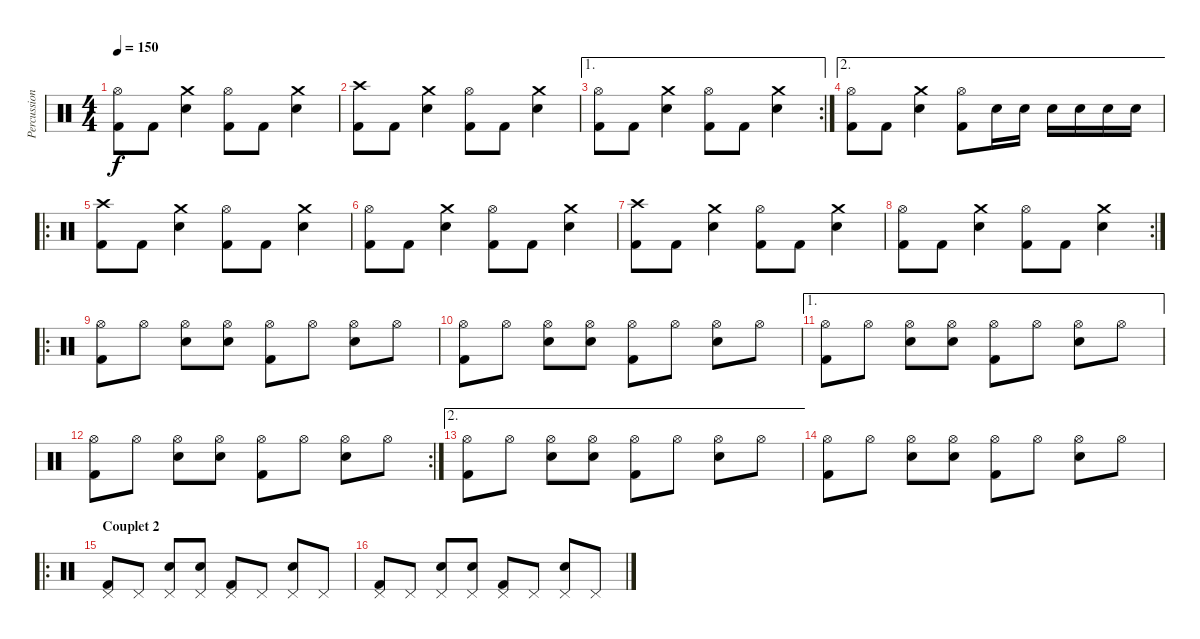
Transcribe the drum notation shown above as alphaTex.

\track ("Percussions" "Percussion") {instrument percussion}
\staff {score}
\articulation defaults
\ts (4 4)
\tempo 150
\clef neutral
\ks c
("Hi-Hat (open)" "Kick (hit) 2").8{dy f} "Kick (hit) 2".8 ("Crash medium (hit)" "Electric Snare (hit)").4 ("Hi-Hat (open)" "Kick (hit) 2").8 "Kick (hit) 2".8 ("Crash medium (hit)" "Electric Snare (hit)").4 |
("Crash high (hit)" "Kick (hit) 2").8 "Kick (hit) 2".8 ("Crash medium (hit)" "Electric Snare (hit)").4 ("Hi-Hat (open)" "Kick (hit) 2").8 "Kick (hit) 2".8 ("Crash medium (hit)" "Electric Snare (hit)").4 |
\ae 1
\rc 2
("Hi-Hat (open)" "Kick (hit) 2").8 "Kick (hit) 2".8 ("Crash medium (hit)" "Electric Snare (hit)").4 ("Hi-Hat (open)" "Kick (hit) 2").8 "Kick (hit) 2".8 ("Crash medium (hit)" "Electric Snare (hit)").4 |
\ae 2
("Hi-Hat (open)" "Kick (hit) 2").8 "Kick (hit) 2".8 ("Crash medium (hit)" "Electric Snare (hit)").4 ("Hi-Hat (open)" "Kick (hit) 2").8 "Electric Snare (hit)".16 "Electric Snare (hit)".16 "Electric Snare (hit)".16 "Electric Snare (hit)".16 "Electric Snare (hit)".16 "Electric Snare (hit)".16 |
\ro
("Crash high (hit)" "Kick (hit) 2").8 "Kick (hit) 2".8 ("Crash medium (hit)" "Electric Snare (hit)").4 ("Hi-Hat (open)" "Kick (hit) 2").8 "Kick (hit) 2".8 ("Crash medium (hit)" "Electric Snare (hit)").4 |
("Hi-Hat (open)" "Kick (hit) 2").8 "Kick (hit) 2".8 ("Crash medium (hit)" "Electric Snare (hit)").4 ("Hi-Hat (open)" "Kick (hit) 2").8 "Kick (hit) 2".8 ("Crash medium (hit)" "Electric Snare (hit)").4 |
("Crash high (hit)" "Kick (hit) 2").8 "Kick (hit) 2".8 ("Crash medium (hit)" "Electric Snare (hit)").4 ("Hi-Hat (open)" "Kick (hit) 2").8 "Kick (hit) 2".8 ("Crash medium (hit)" "Electric Snare (hit)").4 |
\rc 2
("Hi-Hat (open)" "Kick (hit) 2").8 "Kick (hit) 2".8 ("Crash medium (hit)" "Electric Snare (hit)").4 ("Hi-Hat (open)" "Kick (hit) 2").8 "Kick (hit) 2".8 ("Crash medium (hit)" "Electric Snare (hit)").4 |
\ro
("Hi-Hat (open)" "Kick (hit) 2").8 "Hi-Hat (open)".8 ("Hi-Hat (open)" "Electric Snare (hit)").8 ("Hi-Hat (open)" "Electric Snare (hit)").8 ("Hi-Hat (open)" "Kick (hit) 2").8 "Hi-Hat (open)".8 ("Hi-Hat (open)" "Electric Snare (hit)").8 "Hi-Hat (open)".8 |
("Hi-Hat (open)" "Kick (hit) 2").8 "Hi-Hat (open)".8 ("Hi-Hat (open)" "Electric Snare (hit)").8 ("Hi-Hat (open)" "Electric Snare (hit)").8 ("Hi-Hat (open)" "Kick (hit) 2").8 "Hi-Hat (open)".8 ("Hi-Hat (open)" "Electric Snare (hit)").8 "Hi-Hat (open)".8 |
\ae 1
("Hi-Hat (open)" "Kick (hit) 2").8 "Hi-Hat (open)".8 ("Hi-Hat (open)" "Electric Snare (hit)").8 ("Hi-Hat (open)" "Electric Snare (hit)").8 ("Hi-Hat (open)" "Kick (hit) 2").8 "Hi-Hat (open)".8 ("Hi-Hat (open)" "Electric Snare (hit)").8 "Hi-Hat (open)".8 |
\rc 2
("Hi-Hat (open)" "Kick (hit) 2").8 "Hi-Hat (open)".8 ("Hi-Hat (open)" "Electric Snare (hit)").8 ("Hi-Hat (open)" "Electric Snare (hit)").8 ("Hi-Hat (open)" "Kick (hit) 2").8 "Hi-Hat (open)".8 ("Hi-Hat (open)" "Electric Snare (hit)").8 "Hi-Hat (open)".8 |
\ae 2
("Hi-Hat (open)" "Kick (hit) 2").8 "Hi-Hat (open)".8 ("Hi-Hat (open)" "Electric Snare (hit)").8 ("Hi-Hat (open)" "Electric Snare (hit)").8 ("Hi-Hat (open)" "Kick (hit) 2").8 "Hi-Hat (open)".8 ("Hi-Hat (open)" "Electric Snare (hit)").8 "Hi-Hat (open)".8 |
("Hi-Hat (open)" "Kick (hit) 2").8 "Hi-Hat (open)".8 ("Hi-Hat (open)" "Electric Snare (hit)").8 ("Hi-Hat (open)" "Electric Snare (hit)").8 ("Hi-Hat (open)" "Kick (hit) 2").8 "Hi-Hat (open)".8 ("Hi-Hat (open)" "Electric Snare (hit)").8 "Hi-Hat (open)".8 |
\ro
\section ("" "Couplet 2")
("Pedal Hi-Hat (hit)" "Kick (hit) 2").8 "Pedal Hi-Hat (hit)".8 ("Pedal Hi-Hat (hit)" "Electric Snare (hit)").8 ("Pedal Hi-Hat (hit)" "Electric Snare (hit)").8 ("Pedal Hi-Hat (hit)" "Kick (hit) 2").8 "Pedal Hi-Hat (hit)".8 ("Pedal Hi-Hat (hit)" "Electric Snare (hit)").8 "Pedal Hi-Hat (hit)".8 |
("Pedal Hi-Hat (hit)" "Kick (hit) 2").8 "Pedal Hi-Hat (hit)".8 ("Pedal Hi-Hat (hit)" "Electric Snare (hit)").8 ("Pedal Hi-Hat (hit)" "Electric Snare (hit)").8 ("Pedal Hi-Hat (hit)" "Kick (hit) 2").8 "Pedal Hi-Hat (hit)".8 ("Pedal Hi-Hat (hit)" "Electric Snare (hit)").8 "Pedal Hi-Hat (hit)".8
